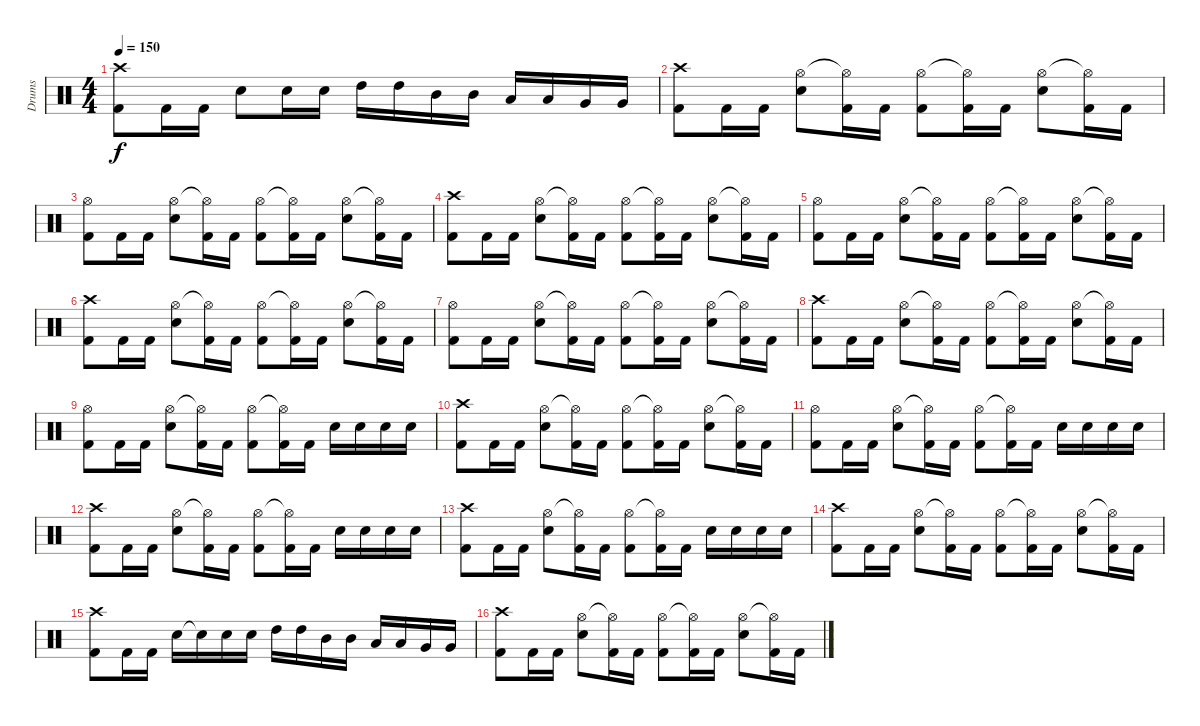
\track ("Drums" "Drums") {instrument percussion}
\staff {score}
\articulation defaults
\ts (4 4)
\tempo 150
\clef neutral
\ks c
("Kick (hit) 2" "Crash high (hit)").8{dy f} "Kick (hit) 2".16 "Kick (hit) 2".16 "Snare (hit) 2".8 "Snare (hit) 2".16 "Snare (hit) 2".16 "High Tom (hit)".16 "High Tom (hit)".16 "Mid Tom (hit)".16 "Mid Tom (hit)".16 "Low Tom (hit)".16 "Low Tom (hit)".16 "Very Low Tom (hit)".16 "Very Low Tom (hit)".16 |
("Kick (hit) 2" "Crash high (hit)").8 "Kick (hit) 2".16 "Kick (hit) 2".16 ("Snare (hit) 2" "Hi-Hat (open)").8 ("Kick (hit) 2" "Hi-Hat (open)"{t}).16 "Kick (hit) 2".16 ("Kick (hit) 2" "Hi-Hat (open)").8 ("Kick (hit) 2" "Hi-Hat (open)"{t}).16 "Kick (hit) 2".16 ("Snare (hit) 2" "Hi-Hat (open)").8 ("Kick (hit) 2" "Hi-Hat (open)"{t}).16 "Kick (hit) 2".16 |
("Kick (hit) 2" "Hi-Hat (open)").8 "Kick (hit) 2".16 "Kick (hit) 2".16 ("Snare (hit) 2" "Hi-Hat (open)").8 ("Kick (hit) 2" "Hi-Hat (open)"{t}).16 "Kick (hit) 2".16 ("Kick (hit) 2" "Hi-Hat (open)").8 ("Kick (hit) 2" "Hi-Hat (open)"{t}).16 "Kick (hit) 2".16 ("Snare (hit) 2" "Hi-Hat (open)").8 ("Kick (hit) 2" "Hi-Hat (open)"{t}).16 "Kick (hit) 2".16 |
("Kick (hit) 2" "Crash high (hit)").8 "Kick (hit) 2".16 "Kick (hit) 2".16 ("Snare (hit) 2" "Hi-Hat (open)").8 ("Kick (hit) 2" "Hi-Hat (open)"{t}).16 "Kick (hit) 2".16 ("Kick (hit) 2" "Hi-Hat (open)").8 ("Kick (hit) 2" "Hi-Hat (open)"{t}).16 "Kick (hit) 2".16 ("Snare (hit) 2" "Hi-Hat (open)").8 ("Kick (hit) 2" "Hi-Hat (open)"{t}).16 "Kick (hit) 2".16 |
("Kick (hit) 2" "Hi-Hat (open)").8 "Kick (hit) 2".16 "Kick (hit) 2".16 ("Snare (hit) 2" "Hi-Hat (open)").8 ("Kick (hit) 2" "Hi-Hat (open)"{t}).16 "Kick (hit) 2".16 ("Kick (hit) 2" "Hi-Hat (open)").8 ("Kick (hit) 2" "Hi-Hat (open)"{t}).16 "Kick (hit) 2".16 ("Snare (hit) 2" "Hi-Hat (open)").8 ("Kick (hit) 2" "Hi-Hat (open)"{t}).16 "Kick (hit) 2".16 |
("Kick (hit) 2" "Crash high (hit)").8 "Kick (hit) 2".16 "Kick (hit) 2".16 ("Snare (hit) 2" "Hi-Hat (open)").8 ("Kick (hit) 2" "Hi-Hat (open)"{t}).16 "Kick (hit) 2".16 ("Kick (hit) 2" "Hi-Hat (open)").8 ("Kick (hit) 2" "Hi-Hat (open)"{t}).16 "Kick (hit) 2".16 ("Snare (hit) 2" "Hi-Hat (open)").8 ("Kick (hit) 2" "Hi-Hat (open)"{t}).16 "Kick (hit) 2".16 |
("Kick (hit) 2" "Hi-Hat (open)").8 "Kick (hit) 2".16 "Kick (hit) 2".16 ("Snare (hit) 2" "Hi-Hat (open)").8 ("Kick (hit) 2" "Hi-Hat (open)"{t}).16 "Kick (hit) 2".16 ("Kick (hit) 2" "Hi-Hat (open)").8 ("Kick (hit) 2" "Hi-Hat (open)"{t}).16 "Kick (hit) 2".16 ("Snare (hit) 2" "Hi-Hat (open)").8 ("Kick (hit) 2" "Hi-Hat (open)"{t}).16 "Kick (hit) 2".16 |
("Kick (hit) 2" "Crash high (hit)").8 "Kick (hit) 2".16 "Kick (hit) 2".16 ("Snare (hit) 2" "Hi-Hat (open)").8 ("Kick (hit) 2" "Hi-Hat (open)"{t}).16 "Kick (hit) 2".16 ("Kick (hit) 2" "Hi-Hat (open)").8 ("Kick (hit) 2" "Hi-Hat (open)"{t}).16 "Kick (hit) 2".16 ("Snare (hit) 2" "Hi-Hat (open)").8 ("Kick (hit) 2" "Hi-Hat (open)"{t}).16 "Kick (hit) 2".16 |
("Kick (hit) 2" "Hi-Hat (open)").8 "Kick (hit) 2".16 "Kick (hit) 2".16 ("Snare (hit) 2" "Hi-Hat (open)").8 ("Kick (hit) 2" "Hi-Hat (open)"{t}).16 "Kick (hit) 2".16 ("Kick (hit) 2" "Hi-Hat (open)").8 ("Kick (hit) 2" "Hi-Hat (open)"{t}).16 "Kick (hit) 2".16 "Snare (hit) 2".16 "Snare (hit) 2".16 "Snare (hit) 2".16 "Snare (hit) 2".16 |
("Kick (hit) 2" "Crash high (hit)").8 "Kick (hit) 2".16 "Kick (hit) 2".16 ("Snare (hit) 2" "Hi-Hat (open)").8 ("Kick (hit) 2" "Hi-Hat (open)"{t}).16 "Kick (hit) 2".16 ("Kick (hit) 2" "Hi-Hat (open)").8 ("Kick (hit) 2" "Hi-Hat (open)"{t}).16 "Kick (hit) 2".16 ("Snare (hit) 2" "Hi-Hat (open)").8 ("Kick (hit) 2" "Hi-Hat (open)"{t}).16 "Kick (hit) 2".16 |
("Kick (hit) 2" "Hi-Hat (open)").8 "Kick (hit) 2".16 "Kick (hit) 2".16 ("Snare (hit) 2" "Hi-Hat (open)").8 ("Kick (hit) 2" "Hi-Hat (open)"{t}).16 "Kick (hit) 2".16 ("Kick (hit) 2" "Hi-Hat (open)").8 ("Kick (hit) 2" "Hi-Hat (open)"{t}).16 "Kick (hit) 2".16 "Snare (hit) 2".16 "Snare (hit) 2".16 "Snare (hit) 2".16 "Snare (hit) 2".16 |
("Kick (hit) 2" "Crash high (hit)").8 "Kick (hit) 2".16 "Kick (hit) 2".16 ("Snare (hit) 2" "Hi-Hat (open)").8 ("Kick (hit) 2" "Hi-Hat (open)"{t}).16 "Kick (hit) 2".16 ("Kick (hit) 2" "Hi-Hat (open)").8 ("Kick (hit) 2" "Hi-Hat (open)"{t}).16 "Kick (hit) 2".16 "Snare (hit) 2".16 "Snare (hit) 2".16 "Snare (hit) 2".16 "Snare (hit) 2".16 |
("Kick (hit) 2" "Crash high (hit)").8 "Kick (hit) 2".16 "Kick (hit) 2".16 ("Snare (hit) 2" "Hi-Hat (open)").8 ("Kick (hit) 2" "Hi-Hat (open)"{t}).16 "Kick (hit) 2".16 ("Kick (hit) 2" "Hi-Hat (open)").8 ("Kick (hit) 2" "Hi-Hat (open)"{t}).16 "Kick (hit) 2".16 "Snare (hit) 2".16 "Snare (hit) 2".16 "Snare (hit) 2".16 "Snare (hit) 2".16 |
("Kick (hit) 2" "Crash high (hit)").8 "Kick (hit) 2".16 "Kick (hit) 2".16 ("Snare (hit) 2" "Hi-Hat (open)").8 ("Kick (hit) 2" "Hi-Hat (open)"{t}).16 "Kick (hit) 2".16 ("Kick (hit) 2" "Hi-Hat (open)").8 ("Kick (hit) 2" "Hi-Hat (open)"{t}).16 "Kick (hit) 2".16 ("Snare (hit) 2" "Hi-Hat (open)").8 ("Kick (hit) 2" "Hi-Hat (open)"{t}).16 "Kick (hit) 2".16 |
("Kick (hit) 2" "Crash high (hit)").8 "Kick (hit) 2".16 "Kick (hit) 2".16 "Snare (hit) 2".16 "Snare (hit) 2"{t}.16 "Snare (hit) 2".16 "Snare (hit) 2".16 "High Tom (hit)".16 "High Tom (hit)".16 "Mid Tom (hit)".16 "Mid Tom (hit)".16 "Low Tom (hit)".16 "Low Tom (hit)".16 "Very Low Tom (hit)".16 "Very Low Tom (hit)".16 |
("Kick (hit) 2" "Crash high (hit)").8 "Kick (hit) 2".16 "Kick (hit) 2".16 ("Snare (hit) 2" "Hi-Hat (open)").8 ("Kick (hit) 2" "Hi-Hat (open)"{t}).16 "Kick (hit) 2".16 ("Kick (hit) 2" "Hi-Hat (open)").8 ("Kick (hit) 2" "Hi-Hat (open)"{t}).16 "Kick (hit) 2".16 ("Snare (hit) 2" "Hi-Hat (open)").8 ("Kick (hit) 2" "Hi-Hat (open)"{t}).16 "Kick (hit) 2".16
